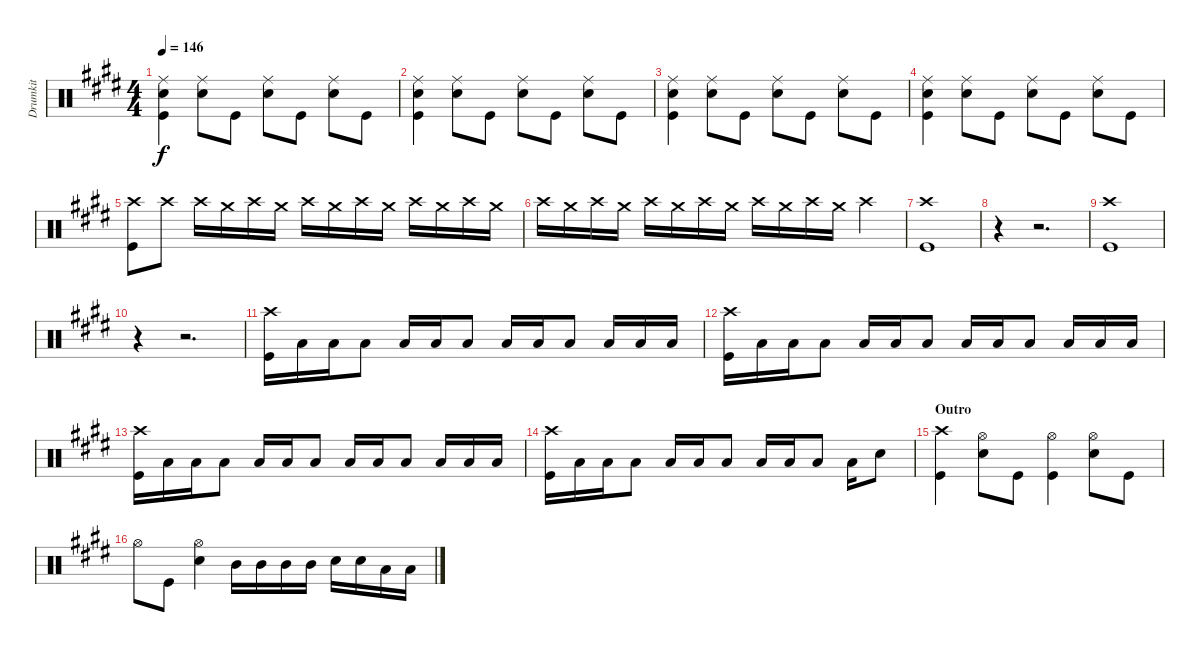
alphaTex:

\track ("Drumkit" "Drumkit") {instrument percussion}
\staff {score}
\articulation defaults
\ts (4 4)
\tempo 146
\clef neutral
\ks e
("Kick (hit)" "Snare (hit) 2" "Ride (middle)").4{dy f} ("Snare (hit) 2" "Ride (middle)").8 "Kick (hit)".8 ("Snare (hit) 2" "Ride (middle)").8 "Kick (hit)".8 ("Snare (hit) 2" "Ride (middle)").8 "Kick (hit)".8 |
("Kick (hit)" "Snare (hit) 2" "Ride (middle)").4 ("Snare (hit) 2" "Ride (middle)").8 "Kick (hit)".8 ("Snare (hit) 2" "Ride (middle)").8 "Kick (hit)".8 ("Snare (hit) 2" "Ride (middle)").8 "Kick (hit)".8 |
("Kick (hit)" "Snare (hit) 2" "Ride (middle)").4 ("Snare (hit) 2" "Ride (middle)").8 "Kick (hit)".8 ("Snare (hit) 2" "Ride (middle)").8 "Kick (hit)".8 ("Snare (hit) 2" "Ride (middle)").8 "Kick (hit)".8 |
("Kick (hit)" "Snare (hit) 2" "Ride (middle)").4 ("Snare (hit) 2" "Ride (middle)").8 "Kick (hit)".8 ("Snare (hit) 2" "Ride (middle)").8 "Kick (hit)".8 ("Snare (hit) 2" "Ride (middle)").8 "Kick (hit)".8 |
("Kick (hit)" "Crash high (hit)").8 "Crash high (hit)".8 "Crash high (hit)".16 "Crash medium (hit)".16 "Crash high (hit)".16 "Crash medium (hit)".16 "Crash high (hit)".16 "Crash medium (hit)".16 "Crash high (hit)".16 "Crash medium (hit)".16 "Crash high (hit)".16 "Crash medium (hit)".16 "Crash high (hit)".16 "Crash medium (hit)".16 |
"Crash high (hit)".16 "Crash medium (hit)".16 "Crash high (hit)".16 "Crash medium (hit)".16 "Crash high (hit)".16 "Crash medium (hit)".16 "Crash high (hit)".16 "Crash medium (hit)".16 "Crash high (hit)".16 "Crash medium (hit)".16 "Crash high (hit)".16 "Crash medium (hit)".16 "Crash high (hit)".4 |
("Kick (hit)" "Crash high (hit)").1 |
r.4 r.2{d} |
("Kick (hit)" "Crash high (hit)").1 |
r.4 r.2{d} |
("Kick (hit)" "Crash high (hit)").16 "Low Floor Tom (hit)".16 "Low Floor Tom (hit)".16 "Low Floor Tom (hit)".8 "Low Floor Tom (hit)".16 "Low Floor Tom (hit)".16 "Low Floor Tom (hit)".8 "Low Floor Tom (hit)".16 "Low Floor Tom (hit)".16 "Low Floor Tom (hit)".8 "Low Floor Tom (hit)".16 "Low Floor Tom (hit)".16 "Low Floor Tom (hit)".16 |
("Kick (hit)" "Crash high (hit)").16 "Low Floor Tom (hit)".16 "Low Floor Tom (hit)".16 "Low Floor Tom (hit)".8 "Low Floor Tom (hit)".16 "Low Floor Tom (hit)".16 "Low Floor Tom (hit)".8 "Low Floor Tom (hit)".16 "Low Floor Tom (hit)".16 "Low Floor Tom (hit)".8 "Low Floor Tom (hit)".16 "Low Floor Tom (hit)".16 "Low Floor Tom (hit)".16 |
("Kick (hit)" "Crash high (hit)").16 "Low Floor Tom (hit)".16 "Low Floor Tom (hit)".16 "Low Floor Tom (hit)".8 "Low Floor Tom (hit)".16 "Low Floor Tom (hit)".16 "Low Floor Tom (hit)".8 "Low Floor Tom (hit)".16 "Low Floor Tom (hit)".16 "Low Floor Tom (hit)".8 "Low Floor Tom (hit)".16 "Low Floor Tom (hit)".16 "Low Floor Tom (hit)".16 |
("Kick (hit)" "Crash high (hit)").16 "Low Floor Tom (hit)".16 "Low Floor Tom (hit)".16 "Low Floor Tom (hit)".8 "Low Floor Tom (hit)".16 "Low Floor Tom (hit)".16 "Low Floor Tom (hit)".8 "Low Floor Tom (hit)".16 "Low Floor Tom (hit)".16 "Low Floor Tom (hit)".8 "Low Floor Tom (hit)".16 "Snare (hit) 2".8 |
\section ("" "Outro")
("Kick (hit)" "Crash high (hit)").4 ("Snare (hit) 2" "Hi-Hat (open)").8 "Kick (hit)".8 ("Kick (hit)" "Hi-Hat (open)").4 ("Snare (hit) 2" "Hi-Hat (open)").8 "Kick (hit)".8 |
"Hi-Hat (open)".8 "Kick (hit)".8 ("Snare (hit) 2" "Hi-Hat (open)").4 "Mid Tom (hit)".16 "Mid Tom (hit)".16 "Mid Tom (hit)".16 "Mid Tom (hit)".16 "Snare (hit) 2".16 "Snare (hit) 2".16 "Low Floor Tom (hit)".16 "Low Floor Tom (hit)".16
